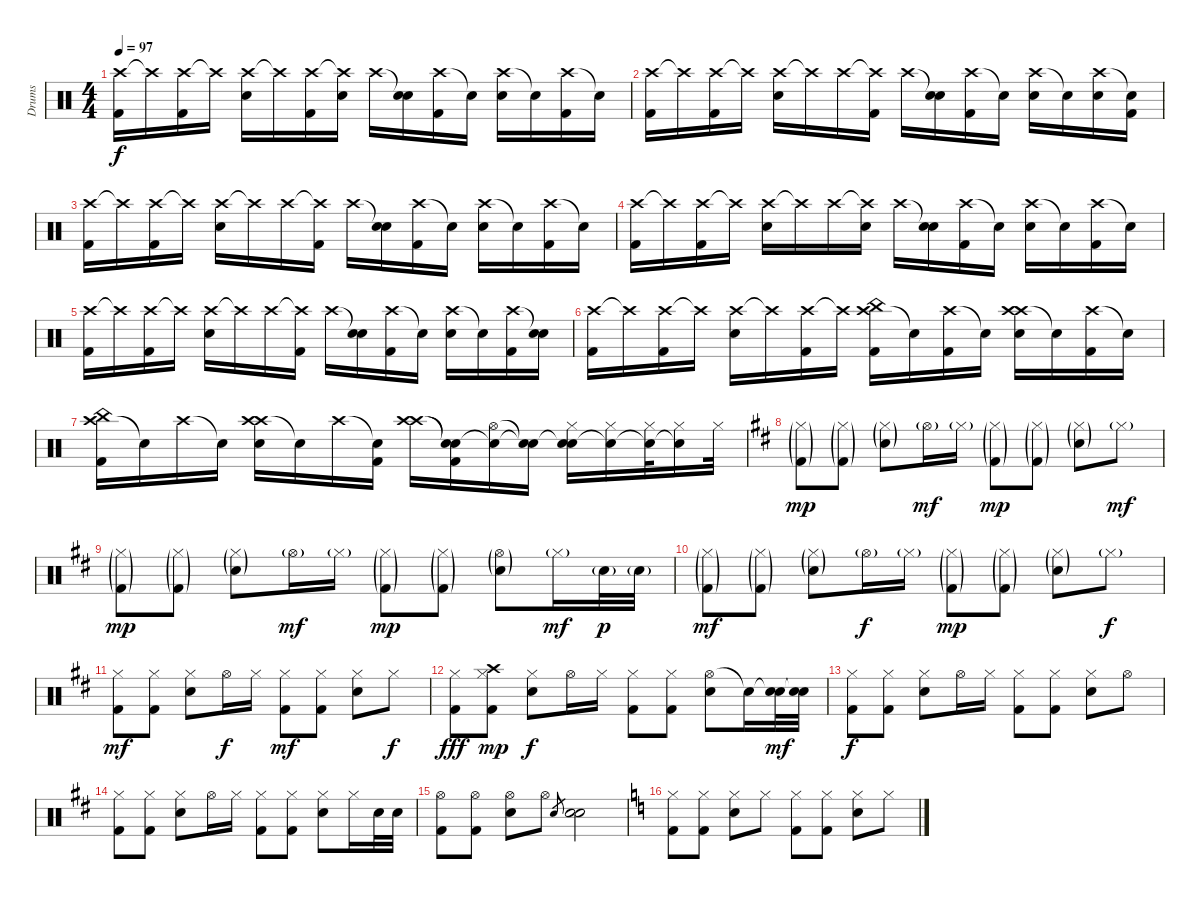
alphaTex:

\track ("Drums" "Drums") {instrument percussion}
\staff {score}
\articulation defaults
\ts (4 4)
\tempo 97
\clef neutral
\ks aminor
("Crash high (hit)" "Kick (hit) 2").16{dy f} "Crash high (hit)"{t}.16 ("Crash high (hit)" "Kick (hit) 2").16 "Crash high (hit)"{t}.16 ("Crash high (hit)" "Snare (hit) 2").16 "Crash high (hit)"{t}.16 ("Crash high (hit)" "Kick (hit) 2").16 ("Crash high (hit)"{t} "Snare (hit) 2").16 "Crash high (hit)".16 ("Snare (hit)"{t} "Snare (hit) 2").16 ("Crash high (hit)" "Kick (hit) 2").16 "Snare (hit)"{t}.16 ("Crash high (hit)" "Snare (hit) 2").16 "Snare (hit)"{t}.16 ("Crash high (hit)" "Kick (hit) 2").16 "Snare (hit)"{t}.16 |
("Crash high (hit)" "Kick (hit) 2").16 "Crash high (hit)"{t}.16 ("Crash high (hit)" "Kick (hit) 2").16 "Crash high (hit)"{t}.16 ("Crash high (hit)" "Snare (hit) 2").16 "Crash high (hit)"{t}.16 "Crash high (hit)".16 ("Crash high (hit)"{t} "Kick (hit) 2").16 "Crash high (hit)".16 ("Snare (hit)"{t} "Snare (hit) 2").16 ("Crash high (hit)" "Kick (hit) 2").16 "Snare (hit)"{t}.16 ("Crash high (hit)" "Snare (hit) 2").16 "Snare (hit)"{t}.16 ("Crash high (hit)" "Snare (hit) 2").16 ("Snare (hit)"{t} "Kick (hit) 2").16 |
("Crash high (hit)" "Kick (hit) 2").16 "Crash high (hit)"{t}.16 ("Crash high (hit)" "Kick (hit) 2").16 "Crash high (hit)"{t}.16 ("Crash high (hit)" "Snare (hit) 2").16 "Crash high (hit)"{t}.16 "Crash high (hit)".16 ("Crash high (hit)"{t} "Kick (hit) 2").16 "Crash high (hit)".16 ("Snare (hit)"{t} "Snare (hit) 2").16 ("Crash high (hit)" "Kick (hit) 2").16 "Snare (hit)"{t}.16 ("Crash high (hit)" "Snare (hit) 2").16 "Snare (hit)"{t}.16 ("Crash high (hit)" "Kick (hit) 2").16 "Snare (hit)"{t}.16 |
("Crash high (hit)" "Kick (hit) 2").16 "Crash high (hit)"{t}.16 ("Crash high (hit)" "Kick (hit) 2").16 "Crash high (hit)"{t}.16 ("Crash high (hit)" "Snare (hit) 2").16 "Crash high (hit)"{t}.16 "Crash high (hit)".16 ("Crash high (hit)"{t} "Snare (hit) 2").16 "Crash high (hit)".16 ("Snare (hit)"{t} "Snare (hit) 2").16 ("Crash high (hit)" "Kick (hit) 2").16 "Snare (hit)"{t}.16 ("Crash high (hit)" "Snare (hit) 2").16 "Snare (hit)"{t}.16 ("Crash high (hit)" "Kick (hit) 2").16 "Snare (hit)"{t}.16 |
("Crash high (hit)" "Kick (hit) 2").16 "Crash high (hit)"{t}.16 ("Crash high (hit)" "Kick (hit) 2").16 "Crash high (hit)"{t}.16 ("Crash high (hit)" "Snare (hit) 2").16 "Crash high (hit)"{t}.16 "Crash high (hit)".16 ("Crash high (hit)"{t} "Kick (hit) 2").16 "Crash high (hit)".16 ("Snare (hit)"{t} "Snare (hit) 2").16 ("Crash high (hit)" "Kick (hit) 2").16 "Snare (hit)"{t}.16 ("Crash high (hit)" "Snare (hit) 2").16 "Snare (hit)"{t}.16 ("Crash high (hit)" "Kick (hit) 2").16 ("Snare (hit)"{t} "Snare (hit) 2").16 |
("Crash high (hit)" "Kick (hit) 2").16 "Crash high (hit)"{t}.16 ("Crash high (hit)" "Kick (hit) 2").16 "Crash high (hit)"{t}.16 ("Crash high (hit)" "Snare (hit) 2").16 "Crash high (hit)"{t}.16 ("Crash high (hit)" "Kick (hit) 2").16 "Crash high (hit)"{t}.16 ("Crash high (hit)" "China (hit)" "Kick (hit) 2").16 "Snare (hit)"{t}.16 ("Crash high (hit)" "Kick (hit) 2").16 "Snare (hit)"{t}.16 ("Crash high (hit)" "Crash high (hit)" "Snare (hit) 2").16 "Snare (hit)"{t}.16 ("Crash high (hit)" "Kick (hit) 2").16 "Snare (hit)"{t}.16 |
("Crash high (hit)" "China (hit)" "Kick (hit) 2").16 "Snare (hit)"{t}.16 "Crash high (hit)".16 "Snare (hit)"{t}.16 ("Crash high (hit)" "Crash high (hit)" "Snare (hit) 2").16 "Snare (hit)"{t}.16 "Crash high (hit)".16 ("Snare (hit)"{t} "Kick (hit) 2").16 ("Crash high (hit)" "Crash high (hit)").16 ("Snare (hit)"{t} "Snare (hit)"{t} "Kick (hit) 2").16 ("Hi-Hat (open)" "Snare (hit)"{t}).16 ("Snare (hit)"{t} "Snare (hit)"{t}).16 ("Hi-Hat (closed)" "Snare (hit)"{t} "Snare (hit) 2").16 ("Hi-Hat (closed)" "Snare (hit)"{t}).16 ("Hi-Hat (closed)" "Snare (hit)"{t}).32 ("Hi-Hat (closed)" "Snare (hit)"{t}).16 "Hi-Hat (closed)".32 |
\ks bminor
("Hi-Hat (closed)"{g} "Kick (hit) 2"{g}).8{dy mp} ("Hi-Hat (closed)"{g} "Kick (hit) 2"{g}).8 ("Hi-Hat (closed)"{g} "Snare (hit) 2"{g}).8 "Hi-Hat (open)"{g}.16{dy mf} "Hi-Hat (closed)"{g}.16 ("Hi-Hat (closed)"{g} "Kick (hit) 2"{g}).8{dy mp} ("Hi-Hat (closed)"{g} "Kick (hit) 2"{g}).8 ("Hi-Hat (closed)"{g} "Snare (hit) 2"{g}).8 "Hi-Hat (closed)"{g}.8{dy mf} |
("Hi-Hat (closed)"{g} "Kick (hit) 2"{g}).8{dy mp} ("Hi-Hat (closed)"{g} "Kick (hit) 2"{g}).8 ("Hi-Hat (closed)"{g} "Snare (hit) 2"{g}).8 "Hi-Hat (open)"{g}.16{dy mf} "Hi-Hat (closed)"{g}.16 ("Hi-Hat (closed)"{g} "Kick (hit) 2"{g}).8{dy mp} ("Hi-Hat (closed)"{g} "Kick (hit) 2"{g}).8 ("Hi-Hat (open)"{g} "Snare (hit) 2"{g}).8 "Hi-Hat (closed)"{g}.16{dy mf} "Snare (hit) 2"{g}.32{dy p} "Snare (hit) 2"{g}.32 |
("Hi-Hat (closed)"{g} "Kick (hit) 2"{g}).8{dy mf} ("Hi-Hat (closed)"{g} "Kick (hit) 2"{g}).8 ("Hi-Hat (closed)"{g} "Snare (hit) 2"{g}).8 "Hi-Hat (open)"{g}.16{dy f} "Hi-Hat (closed)"{g}.16 ("Hi-Hat (closed)"{g} "Kick (hit) 2"{g}).8{dy mp} ("Hi-Hat (closed)"{g} "Kick (hit) 2"{g}).8 ("Hi-Hat (closed)"{g} "Snare (hit) 2"{g}).8 "Hi-Hat (closed)"{g}.8{dy f} |
("Hi-Hat (closed)" "Kick (hit) 2").8{dy mf} ("Hi-Hat (closed)" "Kick (hit) 2").8 ("Hi-Hat (closed)" "Snare (hit) 2").8 "Hi-Hat (open)".16{dy f} "Hi-Hat (closed)".16 ("Hi-Hat (closed)" "Kick (hit) 2").8{dy mf} ("Hi-Hat (closed)" "Kick (hit) 2").8 ("Hi-Hat (closed)" "Snare (hit) 2").8 "Hi-Hat (closed)".8{dy f} |
("Hi-Hat (closed)" "Kick (hit) 2").8{dy fff} ("Hi-Hat (closed)" "Crash high (hit)" "Kick (hit) 2").8{dy mp} ("Hi-Hat (closed)" "Snare (hit) 2").8{dy f} "Hi-Hat (open)".16 "Hi-Hat (closed)".16 ("Hi-Hat (closed)" "Kick (hit) 2").8 ("Hi-Hat (closed)" "Kick (hit) 2").8 ("Hi-Hat (open)" "Snare (hit) 2").8 "Snare (hit)"{t}.16 ("Snare (hit)"{t} "Snare (hit) 2").32{dy mf} ("Snare (hit)"{t} "Snare (hit) 2").32 |
("Hi-Hat (closed)" "Kick (hit) 2").8{dy f} ("Hi-Hat (closed)" "Kick (hit) 2").8 ("Hi-Hat (closed)" "Snare (hit) 2").8 "Hi-Hat (open)".16 "Hi-Hat (closed)".16 ("Hi-Hat (closed)" "Kick (hit) 2").8 ("Hi-Hat (closed)" "Kick (hit) 2").8 ("Hi-Hat (closed)" "Snare (hit) 2").8 "Hi-Hat (open)".8 |
("Hi-Hat (closed)" "Kick (hit) 2").8 ("Hi-Hat (closed)" "Kick (hit) 2").8 ("Hi-Hat (closed)" "Snare (hit) 2").8 "Hi-Hat (open)".16 "Hi-Hat (closed)".16 ("Hi-Hat (closed)" "Kick (hit) 2").8 ("Hi-Hat (closed)" "Kick (hit) 2").8 ("Hi-Hat (closed)" "Snare (hit) 2").8 "Hi-Hat (closed)".16 "Snare (hit) 2".32 "Snare (hit) 2".32 |
("Hi-Hat (open)" "Kick (hit) 2").8 ("Hi-Hat (open)" "Kick (hit) 2").8 ("Hi-Hat (open)" "Snare (hit) 2").8 "Hi-Hat (open)".8 "Snare (hit) 2".8{gr} ("Snare (hit) 2" "Snare (hit) 2").2 |
\ks aminor
("Hi-Hat (closed)" "Kick (hit) 2").8 ("Hi-Hat (closed)" "Kick (hit) 2").8 ("Hi-Hat (closed)" "Snare (hit) 2").8 "Hi-Hat (closed)".8 ("Hi-Hat (closed)" "Kick (hit) 2").8 ("Hi-Hat (closed)" "Kick (hit) 2").8 ("Hi-Hat (closed)" "Snare (hit) 2").8 "Hi-Hat (closed)".8
